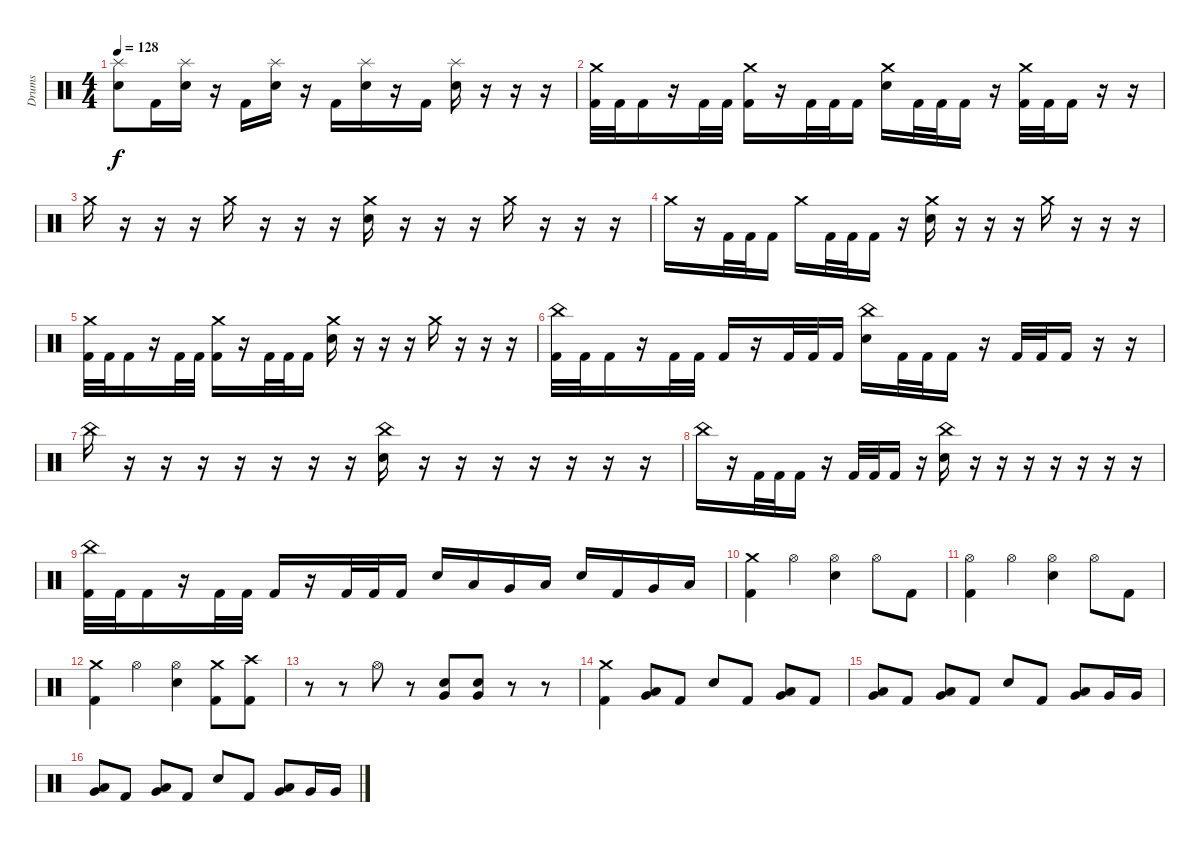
\track ("Drums" "Drums") {instrument percussion}
\staff {score}
\articulation defaults
\ts (4 4)
\tempo 128
\clef neutral
\ks c
("Splash (hit)" "Electric Snare (hit)").8{dy f} "Kick (hit) 2".16 ("Splash (hit)" "Electric Snare (hit)").16 r.16 "Kick (hit) 2".16 ("Splash (hit)" "Electric Snare (hit)").16 r.16 "Kick (hit) 2".16 ("Splash (hit)" "Electric Snare (hit)").16 r.16 "Kick (hit) 2".16 ("Splash (hit)" "Electric Snare (hit)").16 r.16 r.16 r.16 |
("Crash medium (hit)" "Kick (hit) 2").32 "Kick (hit) 2".32 "Kick (hit) 2".16 r.16 "Kick (hit) 2".32 "Kick (hit) 2".32 ("Crash medium (hit)" "Kick (hit) 2").16 r.16 "Kick (hit) 2".32 "Kick (hit) 2".32 "Kick (hit) 2".16 ("Crash medium (hit)" "Electric Snare (hit)").16 "Kick (hit) 2".32 "Kick (hit) 2".32 "Kick (hit) 2".16 r.16 ("Crash medium (hit)" "Kick (hit) 2").32 "Kick (hit) 2".32 "Kick (hit) 2".16 r.16 r.16 |
"Crash medium (hit)".16 r.16 r.16 r.16 "Crash medium (hit)".16 r.16 r.16 r.16 ("Crash medium (hit)" "Electric Snare (hit)").16 r.16 r.16 r.16 "Crash medium (hit)".16 r.16 r.16 r.16 |
"Crash medium (hit)".16 r.16 "Kick (hit) 2".32 "Kick (hit) 2".32 "Kick (hit) 2".16 "Crash medium (hit)".16 "Kick (hit) 2".32 "Kick (hit) 2".32 "Kick (hit) 2".16 r.16 ("Crash medium (hit)" "Electric Snare (hit)").16 r.16 r.16 r.16 "Crash medium (hit)".16 r.16 r.16 r.16 |
("Crash medium (hit)" "Kick (hit) 2").32 "Kick (hit) 2".32 "Kick (hit) 2".16 r.16 "Kick (hit) 2".32 "Kick (hit) 2".32 ("Crash medium (hit)" "Kick (hit) 2").16 r.16 "Kick (hit) 2".32 "Kick (hit) 2".32 "Kick (hit) 2".16 ("Crash medium (hit)" "Electric Snare (hit)").16 r.16 r.16 r.16 "Crash medium (hit)".16 r.16 r.16 r.16 |
("China (hit)" "Kick (hit) 2").32 "Kick (hit) 2".32 "Kick (hit) 2".16 r.16 "Kick (hit) 2".32 "Kick (hit) 2".32 "Kick (hit) 2".16 r.16 "Kick (hit) 2".32 "Kick (hit) 2".32 "Kick (hit) 2".16 ("China (hit)" "Electric Snare (hit)").16 "Kick (hit) 2".32 "Kick (hit) 2".32 "Kick (hit) 2".16 r.16 "Kick (hit) 2".32 "Kick (hit) 2".32 "Kick (hit) 2".16 r.16 r.16 |
"China (hit)".16 r.16 r.16 r.16 r.16 r.16 r.16 r.16 ("China (hit)" "Electric Snare (hit)").16 r.16 r.16 r.16 r.16 r.16 r.16 r.16 |
"China (hit)".16 r.16 "Kick (hit) 2".32 "Kick (hit) 2".32 "Kick (hit) 2".16 r.16 "Kick (hit) 2".32 "Kick (hit) 2".32 "Kick (hit) 2".16 r.16 ("China (hit)" "Electric Snare (hit)").16 r.16 r.16 r.16 r.16 r.16 r.16 r.16 |
("China (hit)" "Kick (hit) 2").32 "Kick (hit) 2".32 "Kick (hit) 2".16 r.16 "Kick (hit) 2".32 "Kick (hit) 2".32 "Kick (hit) 2".16 r.16 "Kick (hit) 2".32 "Kick (hit) 2".32 "Kick (hit) 2".16 "Electric Snare (hit)".16 "Low Tom (hit)".16 "Very Low Tom (hit)".16 "Low Floor Tom (hit)".16 "Electric Snare (hit)".16 "Kick (hit) 2".16 "Very Low Tom (hit)".16 "Low Floor Tom (hit)".16 |
("Crash medium (hit)" "Kick (hit) 2").4 "Hi-Hat (open)".4 ("Hi-Hat (open)" "Electric Snare (hit)").4 "Hi-Hat (open)".8 "Kick (hit) 2".8 |
("Hi-Hat (open)" "Kick (hit) 2").4 "Hi-Hat (open)".4 ("Hi-Hat (open)" "Electric Snare (hit)").4 "Hi-Hat (open)".8 "Kick (hit) 2".8 |
("Crash medium (hit)" "Kick (hit) 2").4 "Hi-Hat (open)".4 ("Hi-Hat (open)" "Electric Snare (hit)").4 ("Crash medium (hit)" "Kick (hit) 2").8 ("Crash high (hit)" "Kick (hit) 2").8 |
r.8 r.8 "Hi-Hat (open)".8 r.8 ("Very Low Tom (hit)" "Electric Snare (hit)").8 ("Very Low Tom (hit)" "Electric Snare (hit)").8 r.8 r.8 |
("Crash medium (hit)" "Kick (hit) 2").4 ("Low Tom (hit)" "Very Low Tom (hit)").8 "Kick (hit) 2".8 "Electric Snare (hit)".8 "Kick (hit) 2".8 ("Low Tom (hit)" "Very Low Tom (hit)").8 "Kick (hit) 2".8 |
("Very Low Tom (hit)" "Low Floor Tom (hit)").8 "Kick (hit) 2".8 ("Low Tom (hit)" "Very Low Tom (hit)").8 "Kick (hit) 2".8 "Electric Snare (hit)".8 "Kick (hit) 2".8 ("Low Tom (hit)" "Very Low Tom (hit)").8 "Very Low Tom (hit)".16 "Very Low Tom (hit)".16 |
("Very Low Tom (hit)" "Low Floor Tom (hit)").8 "Kick (hit) 2".8 ("Low Tom (hit)" "Very Low Tom (hit)").8 "Kick (hit) 2".8 "Electric Snare (hit)".8 "Kick (hit) 2".8 ("Low Tom (hit)" "Very Low Tom (hit)").8 "Very Low Tom (hit)".16 "Very Low Tom (hit)".16
